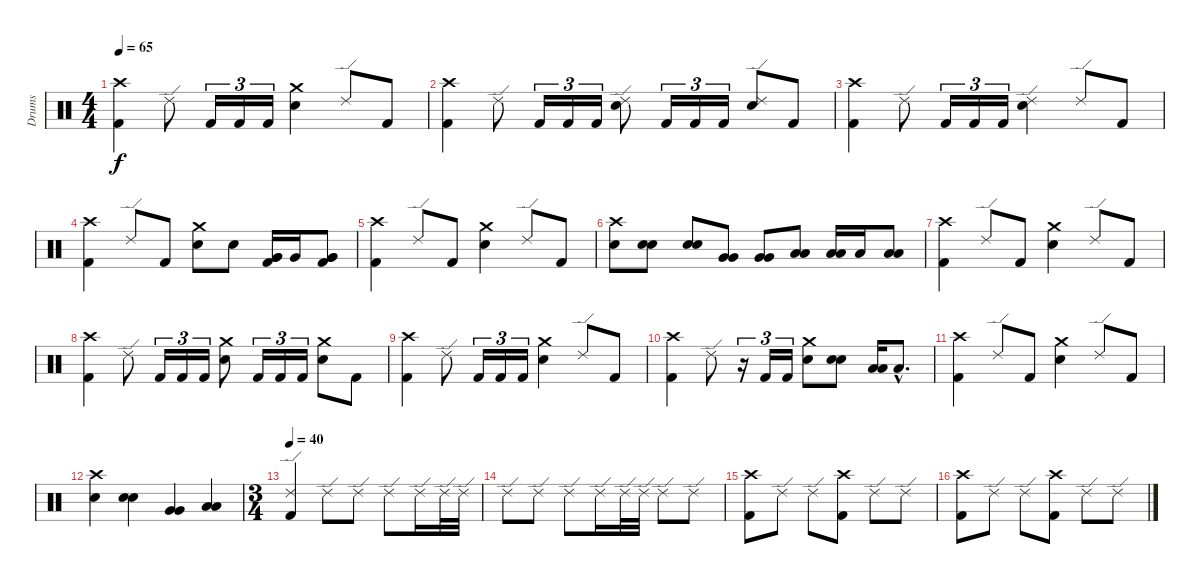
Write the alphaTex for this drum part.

\track ("Drums" "Drums") {instrument percussion}
\staff {score}
\articulation defaults
\ts (4 4)
\tempo 65
\clef neutral
\ks c
("Crash high (hit)" "Kick (hit) 2").4{dy f} "Ride (edge) 2".8 "Kick (hit) 2".16{tu (3 2)} "Kick (hit) 2".16{tu (3 2)} "Kick (hit) 2".16{tu (3 2)} ("Crash medium (hit)" "Electric Snare (hit)").4 "Ride (edge) 2".8 "Kick (hit) 2".8 |
("Crash high (hit)" "Kick (hit) 2").4 "Ride (edge) 2".8 "Kick (hit) 2".16{tu (3 2)} "Kick (hit) 2".16{tu (3 2)} "Kick (hit) 2".16{tu (3 2)} ("Ride (edge) 2" "Electric Snare (hit)").8 "Kick (hit) 2".16{tu (3 2)} "Kick (hit) 2".16{tu (3 2)} "Kick (hit) 2".16{tu (3 2)} ("Ride (edge) 2" "Electric Snare (hit)").8 "Kick (hit) 2".8 |
("Crash high (hit)" "Kick (hit) 2").4 "Ride (edge) 2".8 "Kick (hit) 2".16{tu (3 2)} "Kick (hit) 2".16{tu (3 2)} "Kick (hit) 2".16{tu (3 2)} ("Ride (edge) 2" "Electric Snare (hit)").4 "Ride (edge) 2".8 "Kick (hit) 2".8 |
("Crash high (hit)" "Kick (hit) 2").4 "Ride (edge) 2".8 "Kick (hit) 2".8 ("Crash medium (hit)" "Electric Snare (hit)").8 "Electric Snare (hit)".8 ("Very Low Tom (hit)" "Very Low Tom (hit)" "Kick (hit) 2").16{bu 60} "Very Low Tom (hit)".16 ("Very Low Tom (hit)" "Very Low Tom (hit)" "Kick (hit) 2").8{bu 60} |
("Crash high (hit)" "Kick (hit) 2").4 "Ride (edge) 2".8 "Kick (hit) 2".8 ("Crash medium (hit)" "Electric Snare (hit)").4 "Ride (edge) 2".8 "Kick (hit) 2".8 |
("Crash high (hit)" "Electric Snare (hit)").8 ("Electric Snare (hit)" "Electric Snare (hit)").8{bu 60} ("Electric Snare (hit)" "Electric Snare (hit)").8{bu 60} ("Very Low Tom (hit)" "Very Low Tom (hit)").8{bu 60} ("Very Low Tom (hit)" "Very Low Tom (hit)").8{bu 60} ("Low Floor Tom (hit)" "Low Floor Tom (hit)").8{bu 60} ("Low Floor Tom (hit)" "Low Floor Tom (hit)").16{bu 60} "Low Floor Tom (hit)".16 ("Low Floor Tom (hit)" "Low Floor Tom (hit)").8{bu 60} |
("Crash high (hit)" "Kick (hit) 2").4 "Ride (edge) 2".8 "Kick (hit) 2".8 ("Crash medium (hit)" "Electric Snare (hit)").4 "Ride (edge) 2".8 "Kick (hit) 2".8 |
("Crash high (hit)" "Kick (hit) 2").4 "Ride (edge) 2".8 "Kick (hit) 2".16{tu (3 2)} "Kick (hit) 2".16{tu (3 2)} "Kick (hit) 2".16{tu (3 2)} ("Crash medium (hit)" "Electric Snare (hit)").8 "Kick (hit) 2".16{tu (3 2)} "Kick (hit) 2".16{tu (3 2)} "Kick (hit) 2".16{tu (3 2)} ("Crash medium (hit)" "Electric Snare (hit)").8 "Kick (hit) 2".8 |
("Crash high (hit)" "Kick (hit) 2").4 "Ride (edge) 2".8 "Kick (hit) 2".16{tu (3 2)} "Kick (hit) 2".16{tu (3 2)} "Kick (hit) 2".16{tu (3 2)} ("Crash medium (hit)" "Electric Snare (hit)").4 "Ride (edge) 2".8 "Kick (hit) 2".8 |
("Crash high (hit)" "Kick (hit) 2").4 "Ride (edge) 2".8 r.16{tu (3 2)} "Kick (hit) 2".16{tu (3 2)} "Kick (hit) 2".16{tu (3 2)} ("Crash medium (hit)" "Electric Snare (hit)").8 ("Electric Snare (hit)" "Electric Snare (hit)").8{bu 60} ("Low Floor Tom (hit)" "Low Floor Tom (hit)").16{bu 60} "Low Floor Tom (hit)"{hac}.8{d} |
("Crash high (hit)" "Kick (hit) 2").4 "Ride (edge) 2".8 "Kick (hit) 2".8 ("Crash medium (hit)" "Electric Snare (hit)").4 "Ride (edge) 2".8 "Kick (hit) 2".8 |
("Crash high (hit)" "Electric Snare (hit)").4 ("Electric Snare (hit)" "Electric Snare (hit)").4{bu 60} ("Very Low Tom (hit)" "Very Low Tom (hit)").4{bu 60} ("Low Floor Tom (hit)" "Low Floor Tom (hit)").4{bu 60} |
\ts (3 4)
\tempo 40
("Ride (edge) 2" "Kick (hit) 2").4 "Ride (edge) 2".8 "Ride (edge) 2".8 "Ride (edge) 2".8 "Ride (edge) 2".16 "Ride (edge) 2".32 "Ride (edge) 2".32 |
"Ride (edge) 2".8 "Ride (edge) 2".8 "Ride (edge) 2".8 "Ride (edge) 2".16 "Ride (edge) 2".32 "Ride (edge) 2".32 "Ride (edge) 2".8 "Ride (edge) 2".8 |
("Crash high (hit)" "Kick (hit) 2").8 "Ride (edge) 2".8 "Ride (edge) 2".8 ("Crash high (hit)" "Kick (hit) 2").8 "Ride (edge) 2".8 "Ride (edge) 2".8 |
("Crash high (hit)" "Kick (hit) 2").8 "Ride (edge) 2".8 "Ride (edge) 2".8 ("Crash high (hit)" "Kick (hit) 2").8 "Ride (edge) 2".8 "Ride (edge) 2".8
